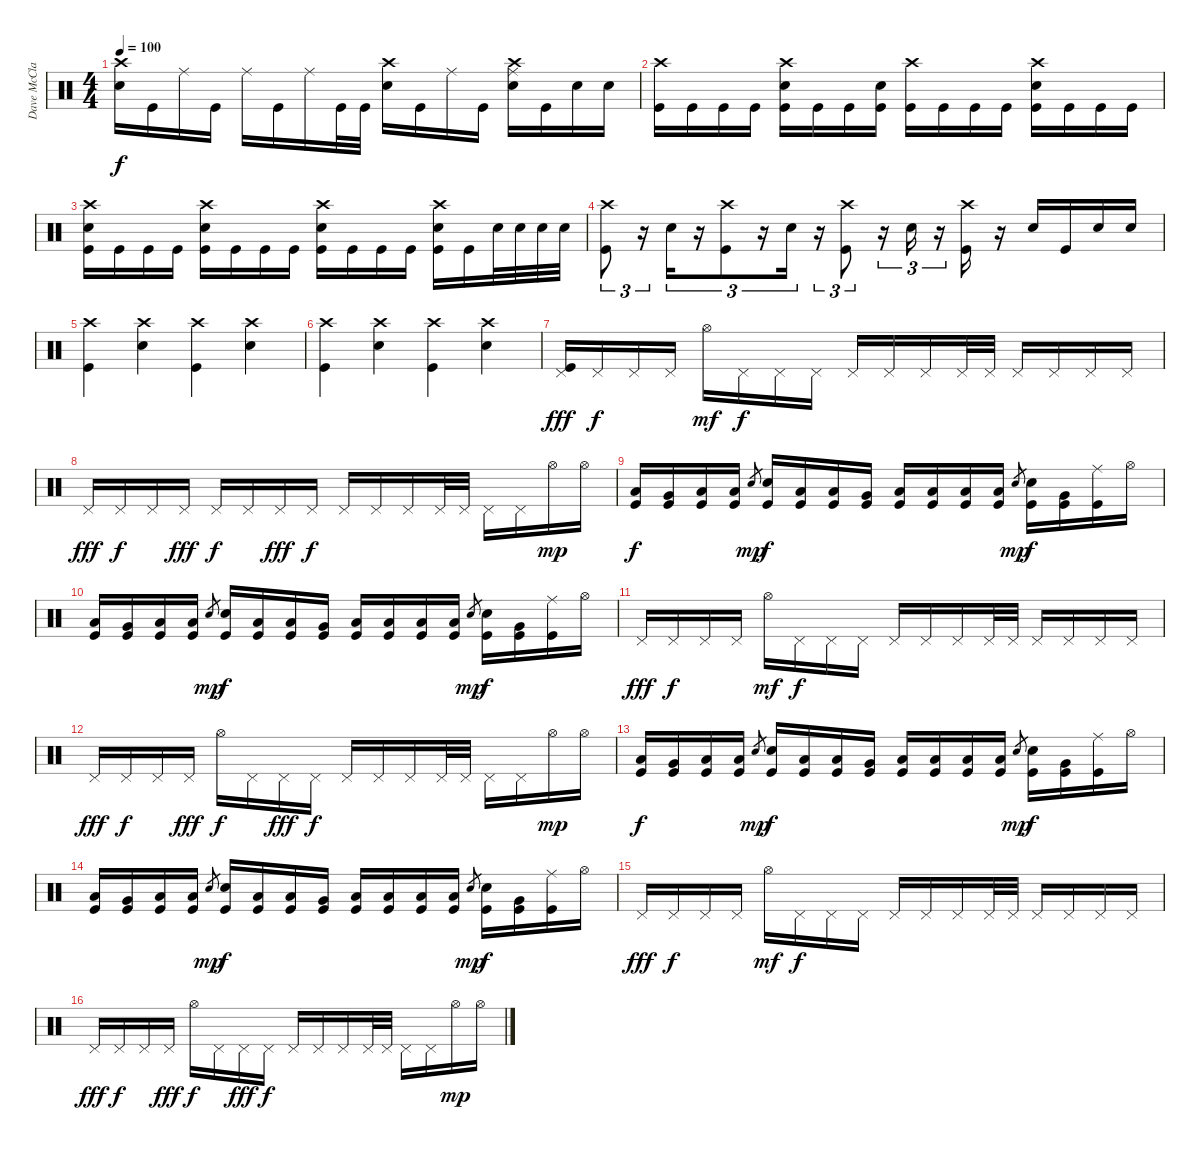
\track ("Dave McClain" "Dave McCla") {instrument percussion}
\staff {score}
\articulation defaults
\ts (4 4)
\tempo 100
\clef neutral
\ks c
("Crash high (hit)" "Snare (hit) 2").16{dy f} "Kick (hit)".16 "Ride (middle)".16 "Kick (hit)".16 "Ride (middle)".16 "Kick (hit)".16 "Ride (middle)".16 "Kick (hit)".32 "Kick (hit)".32 ("Crash high (hit)" "Snare (hit) 2").16 "Kick (hit)".16 "Ride (middle)".16 "Kick (hit)".16 ("Crash high (hit)" "Ride (middle)" "Snare (hit) 2").16 "Kick (hit)".16 "Snare (hit) 2".16 "Snare (hit) 2".16 |
("Crash high (hit)" "Kick (hit)").16 "Kick (hit)".16 "Kick (hit)".16 "Kick (hit)".16 ("Crash high (hit)" "Snare (hit) 2" "Kick (hit)").16 "Kick (hit)".16 "Kick (hit)".16 ("Snare (hit) 2" "Kick (hit)").16 ("Crash high (hit)" "Kick (hit)").16 "Kick (hit)".16 "Kick (hit)".16 "Kick (hit)".16 ("Crash high (hit)" "Snare (hit) 2" "Kick (hit)").16 "Kick (hit)".16 "Kick (hit)".16 "Kick (hit)".16 |
("Crash high (hit)" "Snare (hit) 2" "Kick (hit)").16 "Kick (hit)".16 "Kick (hit)".16 "Kick (hit)".16 ("Crash high (hit)" "Snare (hit) 2" "Kick (hit)").16 "Kick (hit)".16 "Kick (hit)".16 "Kick (hit)".16 ("Crash high (hit)" "Snare (hit) 2" "Kick (hit)").16 "Kick (hit)".16 "Kick (hit)".16 "Kick (hit)".16 ("Crash high (hit)" "Snare (hit) 2" "Kick (hit)").16 "Kick (hit)".16 "Snare (hit) 2".32 "Snare (hit) 2".32 "Snare (hit) 2".32 "Snare (hit) 2".32 |
("Crash high (hit)" "Kick (hit)").8{tu (3 2)} r.16{tu (3 2)} "Snare (hit) 2".16{tu (3 2)} r.16{tu (3 2)} ("Crash high (hit)" "Kick (hit)").8{tu (3 2)} r.16{tu (3 2)} "Snare (hit) 2".16{tu (3 2)} r.16{tu (3 2)} ("Crash high (hit)" "Kick (hit)").8{tu (3 2)} r.16{tu (3 2)} "Snare (hit) 2".16{tu (3 2)} r.16{tu (3 2)} ("Crash high (hit)" "Kick (hit)").16 r.16 "Snare (hit) 2".16 "Kick (hit)".16 "Snare (hit) 2".16 "Snare (hit) 2".16 |
("Crash high (hit)" "Kick (hit)").4 ("Crash high (hit)" "Snare (hit) 2").4 ("Crash high (hit)" "Kick (hit)").4 ("Crash high (hit)" "Snare (hit) 2").4 |
("Crash high (hit)" "Kick (hit)").4 ("Crash high (hit)" "Snare (hit) 2").4 ("Crash high (hit)" "Kick (hit)").4 ("Crash high (hit)" "Snare (hit) 2").4 |
("Pedal Hi-Hat (hit)" "Kick (hit)").16{dy fff} "Pedal Hi-Hat (hit)".16{dy f} "Pedal Hi-Hat (hit)".16 "Pedal Hi-Hat (hit)".16 "Hi-Hat (open)".16{dy mf} "Pedal Hi-Hat (hit)".16{dy f} "Pedal Hi-Hat (hit)".16 "Pedal Hi-Hat (hit)".16 "Pedal Hi-Hat (hit)".16 "Pedal Hi-Hat (hit)".16 "Pedal Hi-Hat (hit)".16 "Pedal Hi-Hat (hit)".32 "Pedal Hi-Hat (hit)".32 "Pedal Hi-Hat (hit)".16 "Pedal Hi-Hat (hit)".16 "Pedal Hi-Hat (hit)".16 "Pedal Hi-Hat (hit)".16 |
"Pedal Hi-Hat (hit)".16{dy fff} "Pedal Hi-Hat (hit)".16{dy f} "Pedal Hi-Hat (hit)".16 "Pedal Hi-Hat (hit)".16{dy fff} "Pedal Hi-Hat (hit)".16{dy f} "Pedal Hi-Hat (hit)".16 "Pedal Hi-Hat (hit)".16{dy fff} "Pedal Hi-Hat (hit)".16{dy f} "Pedal Hi-Hat (hit)".16 "Pedal Hi-Hat (hit)".16 "Pedal Hi-Hat (hit)".16 "Pedal Hi-Hat (hit)".32 "Pedal Hi-Hat (hit)".32 "Pedal Hi-Hat (hit)".16 "Pedal Hi-Hat (hit)".16 "Hi-Hat (open)".16{dy mp} "Hi-Hat (open)".16 |
("Low Tom (hit)" "Kick (hit)").16{dy f} ("Very Low Tom (hit)" "Kick (hit)").16 ("Low Floor Tom (hit)" "Kick (hit)").16 ("Low Floor Tom (hit)" "Kick (hit)").16 "Snare (hit) 2".8{gr dy mp} ("Snare (hit) 2" "Kick (hit)").16{dy f} ("Low Floor Tom (hit)" "Kick (hit)").16 ("Low Tom (hit)" "Kick (hit)").16 ("Very Low Tom (hit)" "Kick (hit)").16 ("Low Floor Tom (hit)" "Kick (hit)").16 ("Low Floor Tom (hit)" "Kick (hit)").16 ("Low Floor Tom (hit)" "Kick (hit)").16 ("Low Floor Tom (hit)" "Kick (hit)").16 "Snare (hit) 2".8{gr dy mp} ("Snare (hit) 2" "Kick (hit)").16{dy f} ("Very Low Tom (hit)" "Kick (hit)").16 ("Ride (middle)" "Kick (hit)").16 "Hi-Hat (open)".16 |
("Low Tom (hit)" "Kick (hit)").16 ("Very Low Tom (hit)" "Kick (hit)").16 ("Low Floor Tom (hit)" "Kick (hit)").16 ("Low Floor Tom (hit)" "Kick (hit)").16 "Snare (hit) 2".8{gr dy mp} ("Snare (hit) 2" "Kick (hit)").16{dy f} ("Low Floor Tom (hit)" "Kick (hit)").16 ("Low Tom (hit)" "Kick (hit)").16 ("Very Low Tom (hit)" "Kick (hit)").16 ("Low Floor Tom (hit)" "Kick (hit)").16 ("Low Floor Tom (hit)" "Kick (hit)").16 ("Low Floor Tom (hit)" "Kick (hit)").16 ("Low Floor Tom (hit)" "Kick (hit)").16 "Snare (hit) 2".8{gr dy mp} ("Snare (hit) 2" "Kick (hit)").16{dy f} ("Very Low Tom (hit)" "Kick (hit)").16 ("Ride (middle)" "Kick (hit)").16 "Hi-Hat (open)".16 |
"Pedal Hi-Hat (hit)".16{dy fff} "Pedal Hi-Hat (hit)".16{dy f} "Pedal Hi-Hat (hit)".16 "Pedal Hi-Hat (hit)".16 "Hi-Hat (open)".16{dy mf} "Pedal Hi-Hat (hit)".16{dy f} "Pedal Hi-Hat (hit)".16 "Pedal Hi-Hat (hit)".16 "Pedal Hi-Hat (hit)".16 "Pedal Hi-Hat (hit)".16 "Pedal Hi-Hat (hit)".16 "Pedal Hi-Hat (hit)".32 "Pedal Hi-Hat (hit)".32 "Pedal Hi-Hat (hit)".16 "Pedal Hi-Hat (hit)".16 "Pedal Hi-Hat (hit)".16 "Pedal Hi-Hat (hit)".16 |
"Pedal Hi-Hat (hit)".16{dy fff} "Pedal Hi-Hat (hit)".16{dy f} "Pedal Hi-Hat (hit)".16 "Pedal Hi-Hat (hit)".16{dy fff} "Hi-Hat (open)".16{dy f} "Pedal Hi-Hat (hit)".16 "Pedal Hi-Hat (hit)".16{dy fff} "Pedal Hi-Hat (hit)".16{dy f} "Pedal Hi-Hat (hit)".16 "Pedal Hi-Hat (hit)".16 "Pedal Hi-Hat (hit)".16 "Pedal Hi-Hat (hit)".32 "Pedal Hi-Hat (hit)".32 "Pedal Hi-Hat (hit)".16 "Pedal Hi-Hat (hit)".16 "Hi-Hat (open)".16{dy mp} "Hi-Hat (open)".16 |
("Low Tom (hit)" "Kick (hit)").16{dy f} ("Very Low Tom (hit)" "Kick (hit)").16 ("Low Floor Tom (hit)" "Kick (hit)").16 ("Low Floor Tom (hit)" "Kick (hit)").16 "Snare (hit) 2".8{gr dy mp} ("Snare (hit) 2" "Kick (hit)").16{dy f} ("Low Floor Tom (hit)" "Kick (hit)").16 ("Low Tom (hit)" "Kick (hit)").16 ("Very Low Tom (hit)" "Kick (hit)").16 ("Low Floor Tom (hit)" "Kick (hit)").16 ("Low Floor Tom (hit)" "Kick (hit)").16 ("Low Floor Tom (hit)" "Kick (hit)").16 ("Low Floor Tom (hit)" "Kick (hit)").16 "Snare (hit) 2".8{gr dy mp} ("Snare (hit) 2" "Kick (hit)").16{dy f} ("Very Low Tom (hit)" "Kick (hit)").16 ("Ride (middle)" "Kick (hit)").16 "Hi-Hat (open)".16 |
("Low Tom (hit)" "Kick (hit)").16 ("Very Low Tom (hit)" "Kick (hit)").16 ("Low Floor Tom (hit)" "Kick (hit)").16 ("Low Floor Tom (hit)" "Kick (hit)").16 "Snare (hit) 2".8{gr dy mp} ("Snare (hit) 2" "Kick (hit)").16{dy f} ("Low Floor Tom (hit)" "Kick (hit)").16 ("Low Tom (hit)" "Kick (hit)").16 ("Very Low Tom (hit)" "Kick (hit)").16 ("Low Floor Tom (hit)" "Kick (hit)").16 ("Low Floor Tom (hit)" "Kick (hit)").16 ("Low Floor Tom (hit)" "Kick (hit)").16 ("Low Floor Tom (hit)" "Kick (hit)").16 "Snare (hit) 2".8{gr dy mp} ("Snare (hit) 2" "Kick (hit)").16{dy f} ("Very Low Tom (hit)" "Kick (hit)").16 ("Ride (middle)" "Kick (hit)").16 "Hi-Hat (open)".16 |
"Pedal Hi-Hat (hit)".16{dy fff} "Pedal Hi-Hat (hit)".16{dy f} "Pedal Hi-Hat (hit)".16 "Pedal Hi-Hat (hit)".16 "Hi-Hat (open)".16{dy mf} "Pedal Hi-Hat (hit)".16{dy f} "Pedal Hi-Hat (hit)".16 "Pedal Hi-Hat (hit)".16 "Pedal Hi-Hat (hit)".16 "Pedal Hi-Hat (hit)".16 "Pedal Hi-Hat (hit)".16 "Pedal Hi-Hat (hit)".32 "Pedal Hi-Hat (hit)".32 "Pedal Hi-Hat (hit)".16 "Pedal Hi-Hat (hit)".16 "Pedal Hi-Hat (hit)".16 "Pedal Hi-Hat (hit)".16 |
"Pedal Hi-Hat (hit)".16{dy fff} "Pedal Hi-Hat (hit)".16{dy f} "Pedal Hi-Hat (hit)".16 "Pedal Hi-Hat (hit)".16{dy fff} "Hi-Hat (open)".16{dy f} "Pedal Hi-Hat (hit)".16 "Pedal Hi-Hat (hit)".16{dy fff} "Pedal Hi-Hat (hit)".16{dy f} "Pedal Hi-Hat (hit)".16 "Pedal Hi-Hat (hit)".16 "Pedal Hi-Hat (hit)".16 "Pedal Hi-Hat (hit)".32 "Pedal Hi-Hat (hit)".32 "Pedal Hi-Hat (hit)".16 "Pedal Hi-Hat (hit)".16 "Hi-Hat (open)".16{dy mp} "Hi-Hat (open)".16
